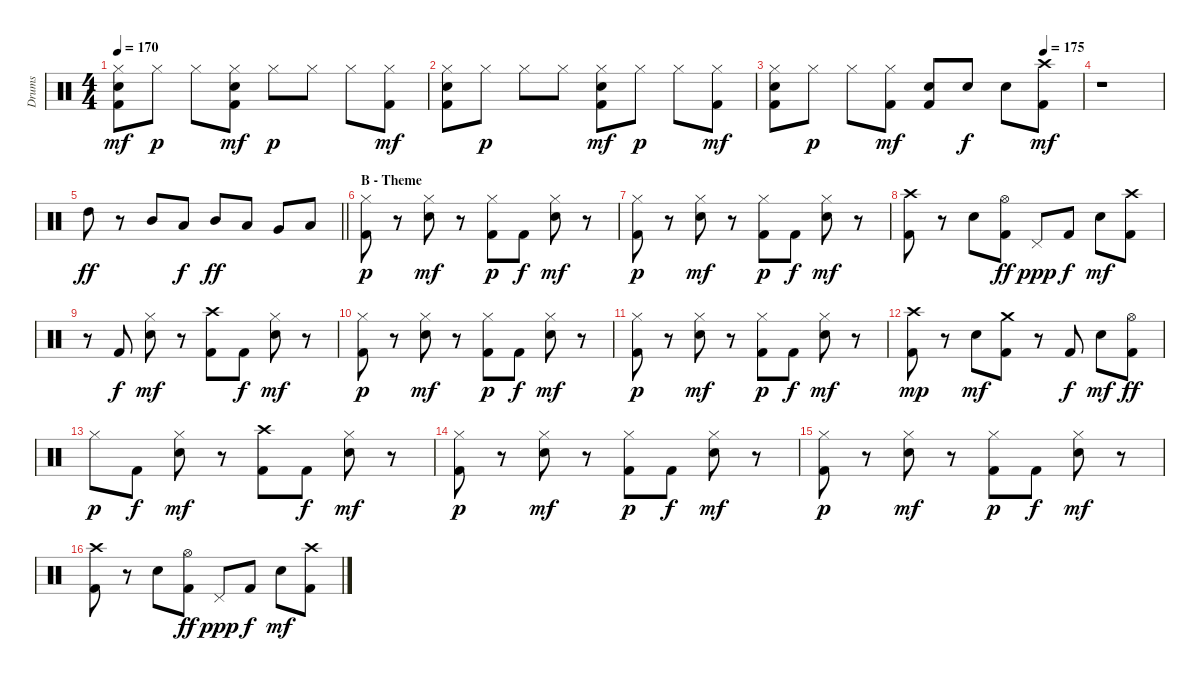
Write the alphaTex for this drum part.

\track ("Drums" "Drums") {instrument percussion}
\staff {score}
\articulation defaults
\ts (4 4)
\tempo 170
\clef neutral
\ks c
("Hi-Hat (closed)" "Electric Snare (hit)" "Kick (hit) 2").8{dy mf} "Hi-Hat (closed)".8{dy p} "Hi-Hat (closed)".8 ("Hi-Hat (closed)" "Electric Snare (hit)" "Kick (hit) 2").8{dy mf} "Hi-Hat (closed)".8{dy p} "Hi-Hat (closed)".8 "Hi-Hat (closed)".8 ("Hi-Hat (closed)" "Kick (hit) 2").8{dy mf} |
("Hi-Hat (closed)" "Electric Snare (hit)" "Kick (hit) 2").8 "Hi-Hat (closed)".8{dy p} "Hi-Hat (closed)".8 "Hi-Hat (closed)".8 ("Hi-Hat (closed)" "Electric Snare (hit)" "Kick (hit) 2").8{dy mf} "Hi-Hat (closed)".8{dy p} "Hi-Hat (closed)".8 ("Hi-Hat (closed)" "Kick (hit) 2").8{dy mf} |
\tempo (175 0.875)
("Hi-Hat (closed)" "Electric Snare (hit)" "Kick (hit) 2").8 "Hi-Hat (closed)".8{dy p} "Hi-Hat (closed)".8 ("Hi-Hat (closed)" "Kick (hit) 2").8{dy mf} ("Electric Snare (hit)" "Kick (hit) 2").8 "Electric Snare (hit)".8{dy f} "Electric Snare (hit)".8 ("Crash high (hit)" "Kick (hit) 2").8{dy mf} |
r.1 |
\barLineRight lightlight "High Tom (hit)".8{dy ff}
r.8 "Mid Tom (hit)".8 "Low Tom (hit)".8{dy f} "Mid Tom (hit)".8{dy ff} "Low Tom (hit)".8 "Very Low Tom (hit)".8 "Low Floor Tom (hit)".8 |
\section ("" "B - Theme")
("Hi-Hat (closed)" "Kick (hit) 2").8{dy p} r.8 ("Hi-Hat (closed)" "Electric Snare (hit)").8{dy mf} r.8 ("Hi-Hat (closed)" "Kick (hit) 2").8{dy p} "Kick (hit) 2".8{dy f} ("Hi-Hat (closed)" "Electric Snare (hit)").8{dy mf} r.8 |
("Hi-Hat (closed)" "Kick (hit) 2").8{dy p} r.8 ("Hi-Hat (closed)" "Electric Snare (hit)").8{dy mf} r.8 ("Hi-Hat (closed)" "Kick (hit) 2").8{dy p} "Kick (hit) 2".8{dy f} ("Hi-Hat (closed)" "Electric Snare (hit)").8{dy mf} r.8 |
("Crash high (hit)" "Kick (hit) 2").8 r.8 "Electric Snare (hit)".8 ("Hi-Hat (open)" "Kick (hit) 2").8{dy ff} "Pedal Hi-Hat (hit)".8{dy ppp} "Kick (hit) 2".8{dy f} "Electric Snare (hit)".8{dy mf} ("Crash high (hit)" "Kick (hit) 2").8 |
r.8 "Kick (hit) 2".8{dy f} ("Hi-Hat (closed)" "Electric Snare (hit)").8{dy mf} r.8 ("Crash high (hit)" "Kick (hit) 2").8 "Kick (hit) 2".8{dy f} ("Hi-Hat (closed)" "Electric Snare (hit)").8{dy mf} r.8 |
("Hi-Hat (closed)" "Kick (hit) 2").8{dy p} r.8 ("Hi-Hat (closed)" "Electric Snare (hit)").8{dy mf} r.8 ("Hi-Hat (closed)" "Kick (hit) 2").8{dy p} "Kick (hit) 2".8{dy f} ("Hi-Hat (closed)" "Electric Snare (hit)").8{dy mf} r.8 |
("Hi-Hat (closed)" "Kick (hit) 2").8{dy p} r.8 ("Hi-Hat (closed)" "Electric Snare (hit)").8{dy mf} r.8 ("Hi-Hat (closed)" "Kick (hit) 2").8{dy p} "Kick (hit) 2".8{dy f} ("Hi-Hat (closed)" "Electric Snare (hit)").8{dy mf} r.8 |
("Crash high (hit)" "Kick (hit) 2").8{dy mp} r.8 "Electric Snare (hit)".8{dy mf} ("Crash medium (hit)" "Kick (hit) 2").8 r.8 "Kick (hit) 2".8{dy f} "Electric Snare (hit)".8{dy mf} ("Hi-Hat (open)" "Kick (hit) 2").8{dy ff} |
"Hi-Hat (closed)".8{dy p} "Kick (hit) 2".8{dy f} ("Hi-Hat (closed)" "Electric Snare (hit)").8{dy mf} r.8 ("Crash high (hit)" "Kick (hit) 2").8 "Kick (hit) 2".8{dy f} ("Hi-Hat (closed)" "Electric Snare (hit)").8{dy mf} r.8 |
("Hi-Hat (closed)" "Kick (hit) 2").8{dy p} r.8 ("Hi-Hat (closed)" "Electric Snare (hit)").8{dy mf} r.8 ("Hi-Hat (closed)" "Kick (hit) 2").8{dy p} "Kick (hit) 2".8{dy f} ("Hi-Hat (closed)" "Electric Snare (hit)").8{dy mf} r.8 |
("Hi-Hat (closed)" "Kick (hit) 2").8{dy p} r.8 ("Hi-Hat (closed)" "Electric Snare (hit)").8{dy mf} r.8 ("Hi-Hat (closed)" "Kick (hit) 2").8{dy p} "Kick (hit) 2".8{dy f} ("Hi-Hat (closed)" "Electric Snare (hit)").8{dy mf} r.8 |
("Crash high (hit)" "Kick (hit) 2").8 r.8 "Electric Snare (hit)".8 ("Hi-Hat (open)" "Kick (hit) 2").8{dy ff} "Pedal Hi-Hat (hit)".8{dy ppp} "Kick (hit) 2".8{dy f} "Electric Snare (hit)".8{dy mf} ("Crash high (hit)" "Kick (hit) 2").8
